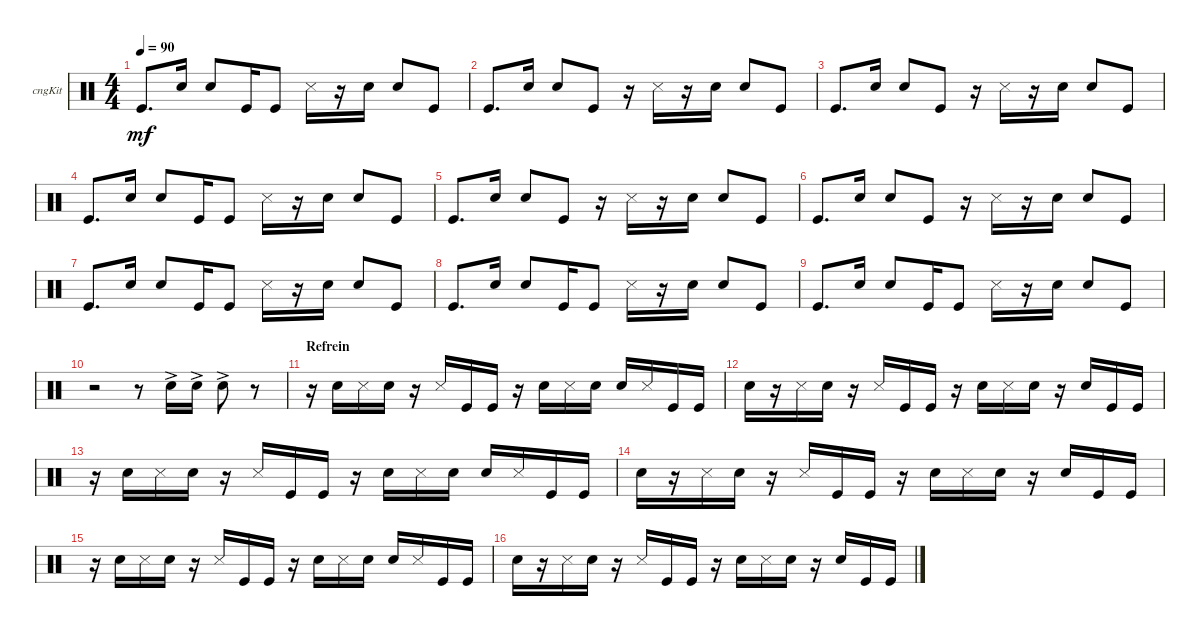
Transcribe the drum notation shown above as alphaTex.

\defaultSystemsLayout 4
\bracketExtendMode groupsimilarinstruments
\firstSystemTrackNameOrientation horizontal
\otherSystemsTrackNameOrientation horizontal
\track ("Congas" "cngKit") {instrument percussion}
\staff {score}
\articulation defaults
\ts (4 4)
\tempo 90
\clef neutral
\scale
0.333333
\ks c "Kick (hit)".8{d dy mf} "Snare (hit) 2".16 "Snare (hit) 2".8 "Kick (hit)".16 "Kick (hit)".8 "Snare (side stick) 3".16
r.16 "Snare (hit) 2".16 "Snare (hit) 2".8 "Kick (hit)".8 |
\scale
0.333333 "Kick (hit)".8{d} "Snare (hit) 2".16 "Snare (hit) 2".8 "Kick (hit)".8 r.16 "Snare (side stick) 3".16 r.16 "Snare (hit) 2".16 "Snare (hit) 2".8 "Kick (hit)".8 |
\scale
0.333333 "Kick (hit)".8{d} "Snare (hit) 2".16 "Snare (hit) 2".8 "Kick (hit)".8 r.16 "Snare (side stick) 3".16 r.16 "Snare (hit) 2".16 "Snare (hit) 2".8 "Kick (hit)".8 |
\scale
0.333333 "Kick (hit)".8{d} "Snare (hit) 2".16 "Snare (hit) 2".8 "Kick (hit)".16 "Kick (hit)".8 "Snare (side stick) 3".16 r.16 "Snare (hit) 2".16 "Snare (hit) 2".8 "Kick (hit)".8 |
\scale
0.333333 "Kick (hit)".8{d} "Snare (hit) 2".16 "Snare (hit) 2".8 "Kick (hit)".8 r.16 "Snare (side stick) 3".16 r.16 "Snare (hit) 2".16 "Snare (hit) 2".8 "Kick (hit)".8 |
\scale
0.333333 "Kick (hit)".8{d} "Snare (hit) 2".16 "Snare (hit) 2".8 "Kick (hit)".8 r.16 "Snare (side stick) 3".16 r.16 "Snare (hit) 2".16 "Snare (hit) 2".8 "Kick (hit)".8 |
\scale
0.333333 "Kick (hit)".8{d} "Snare (hit) 2".16 "Snare (hit) 2".8 "Kick (hit)".16 "Kick (hit)".8 "Snare (side stick) 3".16 r.16 "Snare (hit) 2".16 "Snare (hit) 2".8 "Kick (hit)".8 |
\scale
0.333333 "Kick (hit)".8{d} "Snare (hit) 2".16 "Snare (hit) 2".8 "Kick (hit)".16 "Kick (hit)".8 "Snare (side stick) 3".16 r.16 "Snare (hit) 2".16 "Snare (hit) 2".8 "Kick (hit)".8 |
\scale
0.333333 "Kick (hit)".8{d} "Snare (hit) 2".16 "Snare (hit) 2".8 "Kick (hit)".16 "Kick (hit)".8 "Snare (side stick) 3".16 r.16 "Snare (hit) 2".16 "Snare (hit) 2".8 "Kick (hit)".8 |
\scale
0.333333 r.2 r.8 "Snare (hit) 2"{ac}.16 "Snare (hit) 2"{ac}.16 "Snare (hit) 2"{ac}.8 r.8 |
\section ("" "Refrein")
\scale
0.333333 r.16 "Snare (hit) 2".16 "Snare (side stick) 3".16 "Snare (hit) 2".16 r.16 "Snare (side stick) 3".16 "Kick (hit)".16 "Kick (hit)".16 r.16 "Snare (hit) 2".16 "Snare (side stick) 3".16 "Snare (hit) 2".16 "Snare (hit) 2".16 "Snare (side stick) 3".16 "Kick (hit)".16 "Kick (hit)".16 |
\scale
0.333333 "Snare (hit) 2".16 r.16 "Snare (side stick) 3".16 "Snare (hit) 2".16 r.16 "Snare (side stick) 3".16 "Kick (hit)".16 "Kick (hit)".16 r.16 "Snare (hit) 2".16 "Snare (side stick) 3".16 "Snare (hit) 2".16 r.16 "Snare (hit) 2".16 "Kick (hit)".16 "Kick (hit)".16 |
\scale
0.333333 r.16 "Snare (hit) 2".16 "Snare (side stick) 3".16 "Snare (hit) 2".16 r.16 "Snare (side stick) 3".16 "Kick (hit)".16 "Kick (hit)".16 r.16 "Snare (hit) 2".16 "Snare (side stick) 3".16 "Snare (hit) 2".16 "Snare (hit) 2".16 "Snare (side stick) 3".16 "Kick (hit)".16 "Kick (hit)".16 |
\scale
0.333333 "Snare (hit) 2".16 r.16 "Snare (side stick) 3".16 "Snare (hit) 2".16 r.16 "Snare (side stick) 3".16 "Kick (hit)".16 "Kick (hit)".16 r.16 "Snare (hit) 2".16 "Snare (side stick) 3".16 "Snare (hit) 2".16 r.16 "Snare (hit) 2".16 "Kick (hit)".16 "Kick (hit)".16 |
\scale
0.333333 r.16 "Snare (hit) 2".16 "Snare (side stick) 3".16 "Snare (hit) 2".16 r.16 "Snare (side stick) 3".16 "Kick (hit)".16 "Kick (hit)".16 r.16 "Snare (hit) 2".16 "Snare (side stick) 3".16 "Snare (hit) 2".16 "Snare (hit) 2".16 "Snare (side stick) 3".16 "Kick (hit)".16 "Kick (hit)".16 |
\scale
0.333333 "Snare (hit) 2".16 r.16 "Snare (side stick) 3".16 "Snare (hit) 2".16 r.16 "Snare (side stick) 3".16 "Kick (hit)".16 "Kick (hit)".16 r.16 "Snare (hit) 2".16 "Snare (side stick) 3".16 "Snare (hit) 2".16 r.16 "Snare (hit) 2".16 "Kick (hit)".16 "Kick (hit)".16
